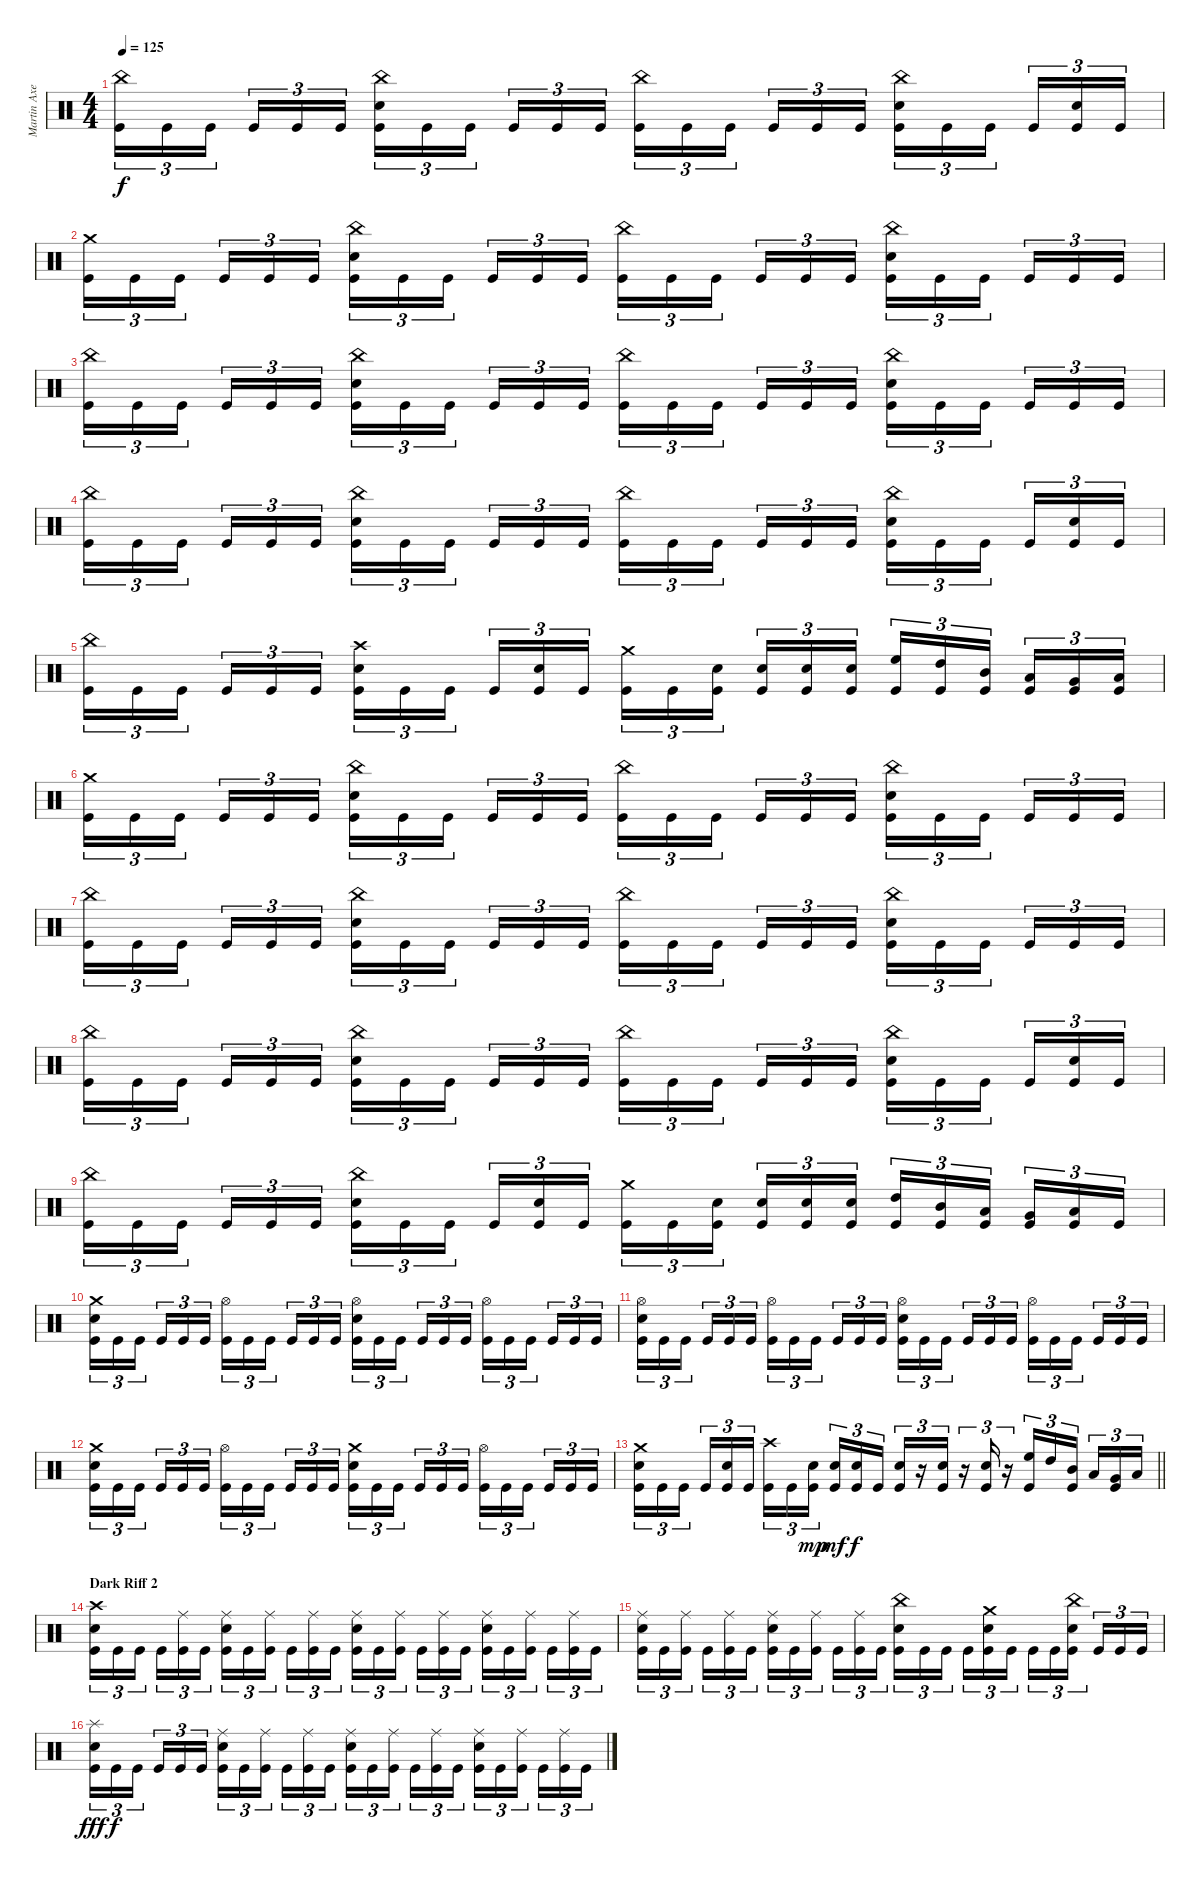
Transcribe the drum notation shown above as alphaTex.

\track ("Martin Axenrot" "Martin Axe") {instrument percussion}
\staff {score}
\articulation defaults
\ts (4 4)
\tempo 125
\clef neutral
\ks c
("China (hit)" "Kick (hit)").16{tu (3 2) dy f} "Kick (hit)".16{tu (3 2)} "Kick (hit)".16{tu (3 2) beam splitsecondary} "Kick (hit)".16{tu (3 2)} "Kick (hit)".16{tu (3 2)} "Kick (hit)".16{tu (3 2)} ("China (hit)" "Snare (hit) 2" "Kick (hit)").16{tu (3 2)} "Kick (hit)".16{tu (3 2)} "Kick (hit)".16{tu (3 2) beam splitsecondary} "Kick (hit)".16{tu (3 2)} "Kick (hit)".16{tu (3 2)} "Kick (hit)".16{tu (3 2)} ("China (hit)" "Kick (hit)").16{tu (3 2)} "Kick (hit)".16{tu (3 2)} "Kick (hit)".16{tu (3 2) beam splitsecondary} "Kick (hit)".16{tu (3 2)} "Kick (hit)".16{tu (3 2)} "Kick (hit)".16{tu (3 2)} ("China (hit)" "Snare (hit) 2" "Kick (hit)").16{tu (3 2)} "Kick (hit)".16{tu (3 2)} "Kick (hit)".16{tu (3 2) beam splitsecondary} "Kick (hit)".16{tu (3 2)} ("Snare (hit) 2" "Kick (hit)").16{tu (3 2)} "Kick (hit)".16{tu (3 2)} |
("Crash medium (hit)" "Kick (hit)").16{tu (3 2)} "Kick (hit)".16{tu (3 2)} "Kick (hit)".16{tu (3 2) beam splitsecondary} "Kick (hit)".16{tu (3 2)} "Kick (hit)".16{tu (3 2)} "Kick (hit)".16{tu (3 2)} ("China (hit)" "Snare (hit) 2" "Kick (hit)").16{tu (3 2)} "Kick (hit)".16{tu (3 2)} "Kick (hit)".16{tu (3 2) beam splitsecondary} "Kick (hit)".16{tu (3 2)} "Kick (hit)".16{tu (3 2)} "Kick (hit)".16{tu (3 2)} ("China (hit)" "Kick (hit)").16{tu (3 2)} "Kick (hit)".16{tu (3 2)} "Kick (hit)".16{tu (3 2) beam splitsecondary} "Kick (hit)".16{tu (3 2)} "Kick (hit)".16{tu (3 2)} "Kick (hit)".16{tu (3 2)} ("China (hit)" "Snare (hit) 2" "Kick (hit)").16{tu (3 2)} "Kick (hit)".16{tu (3 2)} "Kick (hit)".16{tu (3 2) beam splitsecondary} "Kick (hit)".16{tu (3 2)} "Kick (hit)".16{tu (3 2)} "Kick (hit)".16{tu (3 2)} |
("China (hit)" "Kick (hit)").16{tu (3 2)} "Kick (hit)".16{tu (3 2)} "Kick (hit)".16{tu (3 2) beam splitsecondary} "Kick (hit)".16{tu (3 2)} "Kick (hit)".16{tu (3 2)} "Kick (hit)".16{tu (3 2)} ("China (hit)" "Snare (hit) 2" "Kick (hit)").16{tu (3 2)} "Kick (hit)".16{tu (3 2)} "Kick (hit)".16{tu (3 2) beam splitsecondary} "Kick (hit)".16{tu (3 2)} "Kick (hit)".16{tu (3 2)} "Kick (hit)".16{tu (3 2)} ("China (hit)" "Kick (hit)").16{tu (3 2)} "Kick (hit)".16{tu (3 2)} "Kick (hit)".16{tu (3 2) beam splitsecondary} "Kick (hit)".16{tu (3 2)} "Kick (hit)".16{tu (3 2)} "Kick (hit)".16{tu (3 2)} ("China (hit)" "Snare (hit) 2" "Kick (hit)").16{tu (3 2)} "Kick (hit)".16{tu (3 2)} "Kick (hit)".16{tu (3 2) beam splitsecondary} "Kick (hit)".16{tu (3 2)} "Kick (hit)".16{tu (3 2)} "Kick (hit)".16{tu (3 2)} |
("China (hit)" "Kick (hit)").16{tu (3 2)} "Kick (hit)".16{tu (3 2)} "Kick (hit)".16{tu (3 2) beam splitsecondary} "Kick (hit)".16{tu (3 2)} "Kick (hit)".16{tu (3 2)} "Kick (hit)".16{tu (3 2)} ("China (hit)" "Snare (hit) 2" "Kick (hit)").16{tu (3 2)} "Kick (hit)".16{tu (3 2)} "Kick (hit)".16{tu (3 2) beam splitsecondary} "Kick (hit)".16{tu (3 2)} "Kick (hit)".16{tu (3 2)} "Kick (hit)".16{tu (3 2)} ("China (hit)" "Kick (hit)").16{tu (3 2)} "Kick (hit)".16{tu (3 2)} "Kick (hit)".16{tu (3 2) beam splitsecondary} "Kick (hit)".16{tu (3 2)} "Kick (hit)".16{tu (3 2)} "Kick (hit)".16{tu (3 2)} ("China (hit)" "Snare (hit) 2" "Kick (hit)").16{tu (3 2)} "Kick (hit)".16{tu (3 2)} "Kick (hit)".16{tu (3 2) beam splitsecondary} "Kick (hit)".16{tu (3 2)} ("Snare (hit) 2" "Kick (hit)").16{tu (3 2)} "Kick (hit)".16{tu (3 2)} |
("China (hit)" "Kick (hit)").16{tu (3 2)} "Kick (hit)".16{tu (3 2)} "Kick (hit)".16{tu (3 2) beam splitsecondary} "Kick (hit)".16{tu (3 2)} "Kick (hit)".16{tu (3 2)} "Kick (hit)".16{tu (3 2)} ("Crash high (hit)" "Snare (hit) 2" "Kick (hit)").16{tu (3 2)} "Kick (hit)".16{tu (3 2)} "Kick (hit)".16{tu (3 2) beam splitsecondary} "Kick (hit)".16{tu (3 2)} ("Snare (hit) 2" "Kick (hit)").16{tu (3 2)} "Kick (hit)".16{tu (3 2)} ("Crash medium (hit)" "Kick (hit)").16{tu (3 2)} "Kick (hit)".16{tu (3 2)} ("Snare (hit) 2" "Kick (hit)").16{tu (3 2) beam splitsecondary} ("Snare (hit) 2" "Kick (hit)").16{tu (3 2)} ("Snare (hit) 2" "Kick (hit)").16{tu (3 2)} ("Snare (hit) 2" "Kick (hit)").16{tu (3 2)} ("High Floor Tom (hit)" "Kick (hit)").16{tu (3 2)} ("High Tom (hit)" "Kick (hit)").16{tu (3 2)} ("Mid Tom (hit)" "Kick (hit)").16{tu (3 2) beam splitsecondary} ("Low Tom (hit)" "Kick (hit)").16{tu (3 2)} ("Very Low Tom (hit)" "Kick (hit)").16{tu (3 2)} ("Low Floor Tom (hit)" "Kick (hit)").16{tu (3 2)} |
("Crash medium (hit)" "Kick (hit)").16{tu (3 2)} "Kick (hit)".16{tu (3 2)} "Kick (hit)".16{tu (3 2) beam splitsecondary} "Kick (hit)".16{tu (3 2)} "Kick (hit)".16{tu (3 2)} "Kick (hit)".16{tu (3 2)} ("China (hit)" "Snare (hit) 2" "Kick (hit)").16{tu (3 2)} "Kick (hit)".16{tu (3 2)} "Kick (hit)".16{tu (3 2) beam splitsecondary} "Kick (hit)".16{tu (3 2)} "Kick (hit)".16{tu (3 2)} "Kick (hit)".16{tu (3 2)} ("China (hit)" "Kick (hit)").16{tu (3 2)} "Kick (hit)".16{tu (3 2)} "Kick (hit)".16{tu (3 2) beam splitsecondary} "Kick (hit)".16{tu (3 2)} "Kick (hit)".16{tu (3 2)} "Kick (hit)".16{tu (3 2)} ("China (hit)" "Snare (hit) 2" "Kick (hit)").16{tu (3 2)} "Kick (hit)".16{tu (3 2)} "Kick (hit)".16{tu (3 2) beam splitsecondary} "Kick (hit)".16{tu (3 2)} "Kick (hit)".16{tu (3 2)} "Kick (hit)".16{tu (3 2)} |
("China (hit)" "Kick (hit)").16{tu (3 2)} "Kick (hit)".16{tu (3 2)} "Kick (hit)".16{tu (3 2) beam splitsecondary} "Kick (hit)".16{tu (3 2)} "Kick (hit)".16{tu (3 2)} "Kick (hit)".16{tu (3 2)} ("China (hit)" "Snare (hit) 2" "Kick (hit)").16{tu (3 2)} "Kick (hit)".16{tu (3 2)} "Kick (hit)".16{tu (3 2) beam splitsecondary} "Kick (hit)".16{tu (3 2)} "Kick (hit)".16{tu (3 2)} "Kick (hit)".16{tu (3 2)} ("China (hit)" "Kick (hit)").16{tu (3 2)} "Kick (hit)".16{tu (3 2)} "Kick (hit)".16{tu (3 2) beam splitsecondary} "Kick (hit)".16{tu (3 2)} "Kick (hit)".16{tu (3 2)} "Kick (hit)".16{tu (3 2)} ("China (hit)" "Snare (hit) 2" "Kick (hit)").16{tu (3 2)} "Kick (hit)".16{tu (3 2)} "Kick (hit)".16{tu (3 2) beam splitsecondary} "Kick (hit)".16{tu (3 2)} "Kick (hit)".16{tu (3 2)} "Kick (hit)".16{tu (3 2)} |
("China (hit)" "Kick (hit)").16{tu (3 2)} "Kick (hit)".16{tu (3 2)} "Kick (hit)".16{tu (3 2) beam splitsecondary} "Kick (hit)".16{tu (3 2)} "Kick (hit)".16{tu (3 2)} "Kick (hit)".16{tu (3 2)} ("China (hit)" "Snare (hit) 2" "Kick (hit)").16{tu (3 2)} "Kick (hit)".16{tu (3 2)} "Kick (hit)".16{tu (3 2) beam splitsecondary} "Kick (hit)".16{tu (3 2)} "Kick (hit)".16{tu (3 2)} "Kick (hit)".16{tu (3 2)} ("China (hit)" "Kick (hit)").16{tu (3 2)} "Kick (hit)".16{tu (3 2)} "Kick (hit)".16{tu (3 2) beam splitsecondary} "Kick (hit)".16{tu (3 2)} "Kick (hit)".16{tu (3 2)} "Kick (hit)".16{tu (3 2)} ("China (hit)" "Snare (hit) 2" "Kick (hit)").16{tu (3 2)} "Kick (hit)".16{tu (3 2)} "Kick (hit)".16{tu (3 2) beam splitsecondary} "Kick (hit)".16{tu (3 2)} ("Snare (hit) 2" "Kick (hit)").16{tu (3 2)} "Kick (hit)".16{tu (3 2)} |
("China (hit)" "Kick (hit)").16{tu (3 2)} "Kick (hit)".16{tu (3 2)} "Kick (hit)".16{tu (3 2) beam splitsecondary} "Kick (hit)".16{tu (3 2)} "Kick (hit)".16{tu (3 2)} "Kick (hit)".16{tu (3 2)} ("China (hit)" "Snare (hit) 2" "Kick (hit)").16{tu (3 2)} "Kick (hit)".16{tu (3 2)} "Kick (hit)".16{tu (3 2) beam splitsecondary} "Kick (hit)".16{tu (3 2)} ("Snare (hit) 2" "Kick (hit)").16{tu (3 2)} "Kick (hit)".16{tu (3 2)} ("Crash medium (hit)" "Kick (hit)").16{tu (3 2)} "Kick (hit)".16{tu (3 2)} ("Snare (hit) 2" "Kick (hit)").16{tu (3 2) beam splitsecondary} ("Snare (hit) 2" "Kick (hit)").16{tu (3 2)} ("Snare (hit) 2" "Kick (hit)").16{tu (3 2)} ("Snare (hit) 2" "Kick (hit)").16{tu (3 2)} ("High Tom (hit)" "Kick (hit)").16{tu (3 2)} ("Mid Tom (hit)" "Kick (hit)").16{tu (3 2)} ("Low Tom (hit)" "Kick (hit)").16{tu (3 2) beam splitsecondary} ("Very Low Tom (hit)" "Kick (hit)").16{tu (3 2)} ("Low Floor Tom (hit)" "Kick (hit)").16{tu (3 2)} "Kick (hit)".16{tu (3 2)} |
("Crash medium (hit)" "Snare (hit) 2" "Kick (hit)").16{tu (3 2)} "Kick (hit)".16{tu (3 2)} "Kick (hit)".16{tu (3 2) beam splitsecondary} "Kick (hit)".16{tu (3 2)} "Kick (hit)".16{tu (3 2)} "Kick (hit)".16{tu (3 2)} ("Hi-Hat (open)" "Kick (hit)").16{tu (3 2)} "Kick (hit)".16{tu (3 2)} "Kick (hit)".16{tu (3 2) beam splitsecondary} "Kick (hit)".16{tu (3 2)} "Kick (hit)".16{tu (3 2)} "Kick (hit)".16{tu (3 2)} ("Hi-Hat (open)" "Snare (hit) 2" "Kick (hit)").16{tu (3 2)} "Kick (hit)".16{tu (3 2)} "Kick (hit)".16{tu (3 2) beam splitsecondary} "Kick (hit)".16{tu (3 2)} "Kick (hit)".16{tu (3 2)} "Kick (hit)".16{tu (3 2)} ("Hi-Hat (open)" "Kick (hit)").16{tu (3 2)} "Kick (hit)".16{tu (3 2)} "Kick (hit)".16{tu (3 2) beam splitsecondary} "Kick (hit)".16{tu (3 2)} "Kick (hit)".16{tu (3 2)} "Kick (hit)".16{tu (3 2)} |
("Hi-Hat (open)" "Snare (hit) 2" "Kick (hit)").16{tu (3 2)} "Kick (hit)".16{tu (3 2)} "Kick (hit)".16{tu (3 2) beam splitsecondary} "Kick (hit)".16{tu (3 2)} "Kick (hit)".16{tu (3 2)} "Kick (hit)".16{tu (3 2)} ("Hi-Hat (open)" "Kick (hit)").16{tu (3 2)} "Kick (hit)".16{tu (3 2)} "Kick (hit)".16{tu (3 2) beam splitsecondary} "Kick (hit)".16{tu (3 2)} "Kick (hit)".16{tu (3 2)} "Kick (hit)".16{tu (3 2)} ("Hi-Hat (open)" "Snare (hit) 2" "Kick (hit)").16{tu (3 2)} "Kick (hit)".16{tu (3 2)} "Kick (hit)".16{tu (3 2) beam splitsecondary} "Kick (hit)".16{tu (3 2)} "Kick (hit)".16{tu (3 2)} "Kick (hit)".16{tu (3 2)} ("Hi-Hat (open)" "Kick (hit)").16{tu (3 2)} "Kick (hit)".16{tu (3 2)} "Kick (hit)".16{tu (3 2) beam splitsecondary} "Kick (hit)".16{tu (3 2)} "Kick (hit)".16{tu (3 2)} "Kick (hit)".16{tu (3 2)} |
("Crash medium (hit)" "Snare (hit) 2" "Kick (hit)").16{tu (3 2)} "Kick (hit)".16{tu (3 2)} "Kick (hit)".16{tu (3 2) beam splitsecondary} "Kick (hit)".16{tu (3 2)} "Kick (hit)".16{tu (3 2)} "Kick (hit)".16{tu (3 2)} ("Hi-Hat (open)" "Kick (hit)").16{tu (3 2)} "Kick (hit)".16{tu (3 2)} "Kick (hit)".16{tu (3 2) beam splitsecondary} "Kick (hit)".16{tu (3 2)} "Kick (hit)".16{tu (3 2)} "Kick (hit)".16{tu (3 2)} ("Crash medium (hit)" "Snare (hit) 2" "Kick (hit)").16{tu (3 2)} "Kick (hit)".16{tu (3 2)} "Kick (hit)".16{tu (3 2) beam splitsecondary} "Kick (hit)".16{tu (3 2)} "Kick (hit)".16{tu (3 2)} "Kick (hit)".16{tu (3 2)} ("Hi-Hat (open)" "Kick (hit)").16{tu (3 2)} "Kick (hit)".16{tu (3 2)} "Kick (hit)".16{tu (3 2) beam splitsecondary} "Kick (hit)".16{tu (3 2)} "Kick (hit)".16{tu (3 2)} "Kick (hit)".16{tu (3 2)} |
\barLineRight lightlight
("Crash medium (hit)" "Snare (hit) 2" "Kick (hit)").16{tu (3 2)} "Kick (hit)".16{tu (3 2)} "Kick (hit)".16{tu (3 2) beam splitsecondary} "Kick (hit)".16{tu (3 2)} ("Snare (hit) 2" "Kick (hit)").16{tu (3 2)} "Kick (hit)".16{tu (3 2)} ("Crash high (hit)" "Kick (hit)").16{tu (3 2)} "Kick (hit)".16{tu (3 2)} ("Snare (hit) 2" "Kick (hit)").16{tu (3 2) dy mp beam splitsecondary} ("Snare (hit) 2" "Kick (hit)").16{tu (3 2) dy mf} ("Snare (hit) 2" "Kick (hit)").16{tu (3 2) dy f} "Kick (hit)".16{tu (3 2)} ("Snare (hit) 2" "Kick (hit)").16{tu (3 2)} r.16{tu (3 2)} ("Snare (hit) 2" "Kick (hit)").16{tu (3 2)} r.16{tu (3 2)} ("Snare (hit) 2" "Kick (hit)").16{tu (3 2)} r.16{tu (3 2)} ("High Floor Tom (hit)" "Kick (hit)").16{tu (3 2)} "High Tom (hit)".16{tu (3 2)} ("Mid Tom (hit)" "Kick (hit)").16{tu (3 2) beam splitsecondary} "Low Tom (hit)".16{tu (3 2)} ("Very Low Tom (hit)" "Kick (hit)").16{tu (3 2)} "Low Floor Tom (hit)".16{tu (3 2)} |
\section ("" "Dark Riff 2")
("Crash high (hit)" "Snare (hit) 2" "Kick (hit)").16{tu (3 2)} "Kick (hit)".16{tu (3 2)} "Kick (hit)".16{tu (3 2) beam splitsecondary} "Kick (hit)".16{tu (3 2)} ("Ride (middle)" "Kick (hit)").16{tu (3 2)} "Kick (hit)".16{tu (3 2)} ("Ride (middle)" "Snare (hit) 2" "Kick (hit)").16{tu (3 2)} "Kick (hit)".16{tu (3 2)} ("Ride (middle)" "Kick (hit)").16{tu (3 2) beam splitsecondary} "Kick (hit)".16{tu (3 2)} ("Ride (middle)" "Kick (hit)").16{tu (3 2)} "Kick (hit)".16{tu (3 2)} ("Ride (middle)" "Snare (hit) 2" "Kick (hit)").16{tu (3 2)} "Kick (hit)".16{tu (3 2)} ("Ride (middle)" "Kick (hit)").16{tu (3 2) beam splitsecondary} "Kick (hit)".16{tu (3 2)} ("Ride (middle)" "Kick (hit)").16{tu (3 2)} "Kick (hit)".16{tu (3 2)} ("Ride (middle)" "Snare (hit) 2" "Kick (hit)").16{tu (3 2)} "Kick (hit)".16{tu (3 2)} ("Ride (middle)" "Kick (hit)").16{tu (3 2) beam splitsecondary} "Kick (hit)".16{tu (3 2)} ("Ride (middle)" "Kick (hit)").16{tu (3 2)} "Kick (hit)".16{tu (3 2)} |
("Ride (middle)" "Snare (hit) 2" "Kick (hit)").16{tu (3 2)} "Kick (hit)".16{tu (3 2)} ("Ride (middle)" "Kick (hit)").16{tu (3 2) beam splitsecondary} "Kick (hit)".16{tu (3 2)} ("Ride (middle)" "Kick (hit)").16{tu (3 2)} "Kick (hit)".16{tu (3 2)} ("Ride (middle)" "Snare (hit) 2" "Kick (hit)").16{tu (3 2)} "Kick (hit)".16{tu (3 2)} ("Ride (middle)" "Kick (hit)").16{tu (3 2) beam splitsecondary} "Kick (hit)".16{tu (3 2)} ("Ride (middle)" "Kick (hit)").16{tu (3 2)} "Kick (hit)".16{tu (3 2)} ("China (hit)" "Snare (hit) 2" "Kick (hit)").16{tu (3 2)} "Kick (hit)".16{tu (3 2)} "Kick (hit)".16{tu (3 2) beam splitsecondary} "Kick (hit)".16{tu (3 2)} ("Crash medium (hit)" "Snare (hit) 2" "Kick (hit)").16{tu (3 2)} "Kick (hit)".16{tu (3 2)} "Kick (hit)".16{tu (3 2)} "Kick (hit)".16{tu (3 2)} ("China (hit)" "Snare (hit) 2" "Kick (hit)").16{tu (3 2) beam splitsecondary} "Kick (hit)".16{tu (3 2)} "Kick (hit)".16{tu (3 2)} "Kick (hit)".16{tu (3 2)} |
("Splash (hit)" "Snare (hit) 2" "Kick (hit)").16{tu (3 2) dy fff} "Kick (hit)".16{tu (3 2) dy f} "Kick (hit)".16{tu (3 2) beam splitsecondary} "Kick (hit)".16{tu (3 2)} "Kick (hit)".16{tu (3 2)} "Kick (hit)".16{tu (3 2)} ("Ride (middle)" "Snare (hit) 2" "Kick (hit)").16{tu (3 2)} "Kick (hit)".16{tu (3 2)} ("Ride (middle)" "Kick (hit)").16{tu (3 2) beam splitsecondary} "Kick (hit)".16{tu (3 2)} ("Ride (middle)" "Kick (hit)").16{tu (3 2)} "Kick (hit)".16{tu (3 2)} ("Ride (middle)" "Snare (hit) 2" "Kick (hit)").16{tu (3 2)} "Kick (hit)".16{tu (3 2)} ("Ride (middle)" "Kick (hit)").16{tu (3 2) beam splitsecondary} "Kick (hit)".16{tu (3 2)} ("Ride (middle)" "Kick (hit)").16{tu (3 2)} "Kick (hit)".16{tu (3 2)} ("Ride (middle)" "Snare (hit) 2" "Kick (hit)").16{tu (3 2)} "Kick (hit)".16{tu (3 2)} ("Ride (middle)" "Kick (hit)").16{tu (3 2) beam splitsecondary} "Kick (hit)".16{tu (3 2)} ("Ride (middle)" "Kick (hit)").16{tu (3 2)} "Kick (hit)".16{tu (3 2)}
